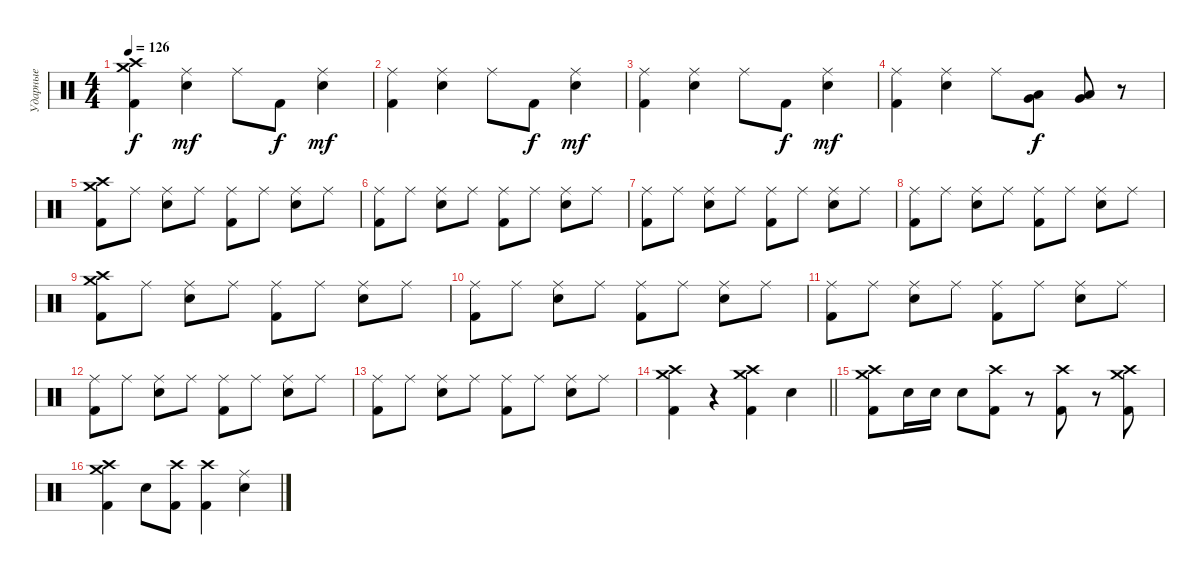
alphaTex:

\track ("Ударные" "Ударные") {instrument percussion}
\staff {score}
\articulation defaults
\ts (4 4)
\tempo 126
\clef neutral
\ks c
("Kick (hit) 2" "Crash high (hit)" "Crash medium (hit)").4{dy f} ("Snare (hit) 2" "Ride (middle)").4{dy mf} "Ride (middle)".8 "Kick (hit) 2".8{dy f} ("Snare (hit) 2" "Ride (middle)").4{dy mf} |
("Kick (hit) 2" "Ride (middle)").4 ("Snare (hit) 2" "Ride (middle)").4 "Ride (middle)".8 "Kick (hit) 2".8{dy f} ("Snare (hit) 2" "Ride (middle)").4{dy mf} |
("Kick (hit) 2" "Ride (middle)").4 ("Snare (hit) 2" "Ride (middle)").4 "Ride (middle)".8 "Kick (hit) 2".8{dy f} ("Snare (hit) 2" "Ride (middle)").4{dy mf} |
("Kick (hit) 2" "Ride (middle)").4 ("Snare (hit) 2" "Ride (middle)").4 "Ride (middle)".8 ("Low Tom (hit)" "Very Low Tom (hit)").8{dy f} ("Low Tom (hit)" "Very Low Tom (hit)").8 r.8 |
("Kick (hit) 2" "Crash high (hit)" "Crash medium (hit)").8 "Ride (middle)".8 ("Snare (hit) 2" "Ride (middle)").8 "Ride (middle)".8 ("Kick (hit) 2" "Ride (middle)").8 "Ride (middle)".8 ("Snare (hit) 2" "Ride (middle)").8 "Ride (middle)".8 |
("Kick (hit) 2" "Ride (middle)").8 "Ride (middle)".8 ("Snare (hit) 2" "Ride (middle)").8 "Ride (middle)".8 ("Kick (hit) 2" "Ride (middle)").8 "Ride (middle)".8 ("Snare (hit) 2" "Ride (middle)").8 "Ride (middle)".8 |
("Kick (hit) 2" "Ride (middle)").8 "Ride (middle)".8 ("Snare (hit) 2" "Ride (middle)").8 "Ride (middle)".8 ("Kick (hit) 2" "Ride (middle)").8 "Ride (middle)".8 ("Snare (hit) 2" "Ride (middle)").8 "Ride (middle)".8 |
("Kick (hit) 2" "Ride (middle)").8 "Ride (middle)".8 ("Snare (hit) 2" "Ride (middle)").8 "Ride (middle)".8 ("Kick (hit) 2" "Ride (middle)").8 "Ride (middle)".8 ("Snare (hit) 2" "Ride (middle)").8 "Ride (middle)".8 |
("Crash high (hit)" "Crash medium (hit)" "Kick (hit) 2").8 "Ride (middle)".8 ("Snare (hit) 2" "Ride (middle)").8 "Ride (middle)".8 ("Kick (hit) 2" "Ride (middle)").8 "Ride (middle)".8 ("Snare (hit) 2" "Ride (middle)").8 "Ride (middle)".8 |
("Kick (hit) 2" "Ride (middle)").8 "Ride (middle)".8 ("Snare (hit) 2" "Ride (middle)").8 "Ride (middle)".8 ("Kick (hit) 2" "Ride (middle)").8 "Ride (middle)".8 ("Snare (hit) 2" "Ride (middle)").8 "Ride (middle)".8 |
("Kick (hit) 2" "Ride (middle)").8 "Ride (middle)".8 ("Snare (hit) 2" "Ride (middle)").8 "Ride (middle)".8 ("Kick (hit) 2" "Ride (middle)").8 "Ride (middle)".8 ("Snare (hit) 2" "Ride (middle)").8 "Ride (middle)".8 |
("Kick (hit) 2" "Ride (middle)").8 "Ride (middle)".8 ("Snare (hit) 2" "Ride (middle)").8 "Ride (middle)".8 ("Kick (hit) 2" "Ride (middle)").8 "Ride (middle)".8 ("Snare (hit) 2" "Ride (middle)").8 "Ride (middle)".8 |
("Kick (hit) 2" "Ride (middle)").8 "Ride (middle)".8 ("Snare (hit) 2" "Ride (middle)").8 "Ride (middle)".8 ("Kick (hit) 2" "Ride (middle)").8 "Ride (middle)".8 ("Snare (hit) 2" "Ride (middle)").8 "Ride (middle)".8 |
\barLineRight lightlight
("Kick (hit) 2" "Crash high (hit)" "Crash medium (hit)").4 r.4 ("Kick (hit) 2" "Crash high (hit)" "Crash medium (hit)").4 "Snare (hit) 2".4 |
("Kick (hit) 2" "Crash high (hit)" "Crash medium (hit)").8 "Snare (hit) 2".16 "Electric Snare (hit)".16 "Snare (hit) 2".8 ("Kick (hit) 2" "Crash high (hit)").8 r.8 ("Kick (hit) 2" "Crash high (hit)").8 r.8 ("Kick (hit) 2" "Crash medium (hit)" "Crash high (hit)").8 |
("Kick (hit) 2" "Crash high (hit)" "Crash medium (hit)").4 "Snare (hit) 2".8 ("Kick (hit) 2" "Crash high (hit)").8 ("Kick (hit) 2" "Crash high (hit)").4 ("Snare (hit) 2" "Ride (middle)").4
